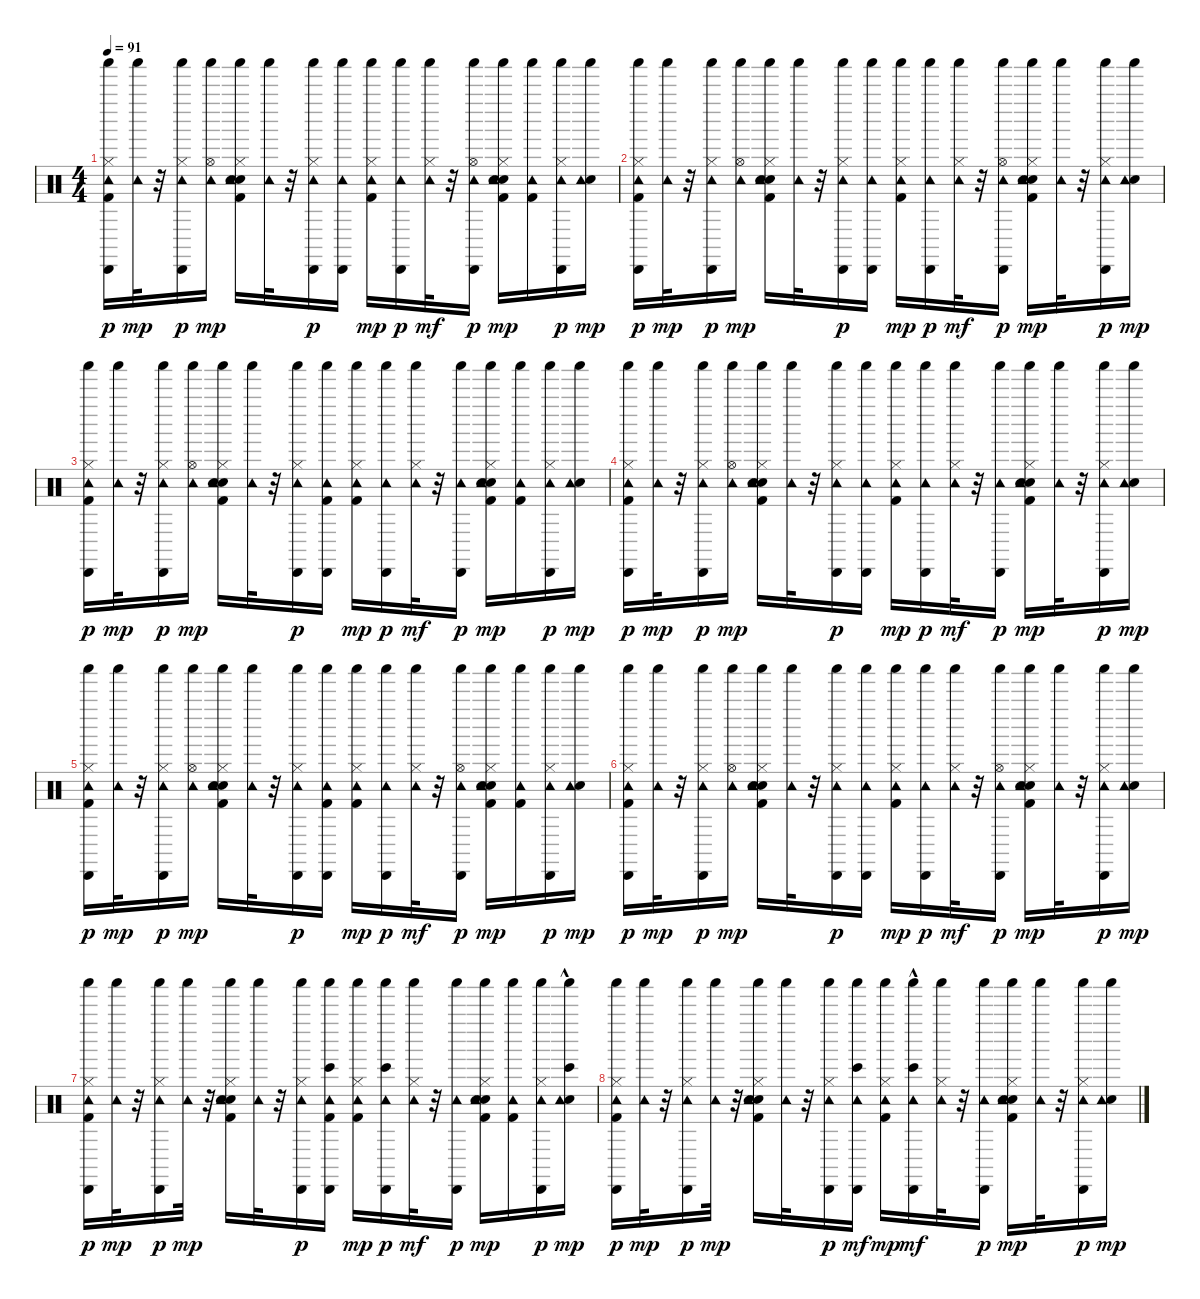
\track "" {instrument percussion}
\staff {score}
\articulation defaults
\ts (4 4)
\tempo 91
\clef neutral
\ks c
("Kick (hit) 2" "Hi-Hat (closed)" "Tambourine (hit)" "Shaker (hit)" "Cabasa (hit)").16{dy p} ("Tambourine (hit)" "Shaker (hit)").32{dy mp} r.32 ("Hi-Hat (closed)" "Tambourine (hit)" "Shaker (hit)" "Cabasa (hit)").16{dy p} ("Hi-Hat (open)" "Tambourine (hit)" "Shaker (hit)").16{dy mp} ("Kick (hit) 2" "Electric Snare (hit)" "Hi-Hat (closed)" "Hand Clap (hit)" "Tambourine (hit)" "Shaker (hit)").16 ("Tambourine (hit)" "Shaker (hit)").32 r.32 ("Hi-Hat (closed)" "Tambourine (hit)" "Shaker (hit)" "Cabasa (hit)").16{dy p} ("Tambourine (hit)" "Shaker (hit)" "Cabasa (hit)").16 ("Kick (hit) 2" "Hi-Hat (closed)" "Tambourine (hit)" "Shaker (hit)").16{dy mp} ("Tambourine (hit)" "Shaker (hit)" "Cabasa (hit)").16{dy p} ("Hi-Hat (closed)" "Tambourine (hit)" "Shaker (hit)").32{dy mf} r.32 ("Hi-Hat (open)" "Tambourine (hit)" "Shaker (hit)" "Cabasa (hit)").16{dy p} ("Kick (hit) 2" "Electric Snare (hit)" "Hi-Hat (closed)" "Hand Clap (hit)" "Tambourine (hit)" "Shaker (hit)").16{dy mp} ("Kick (hit) 2" "Tambourine (hit)" "Shaker (hit)").16 ("Hi-Hat (closed)" "Tambourine (hit)" "Shaker (hit)" "Cabasa (hit)").16{dy p} ("Electric Snare (hit)" "Tambourine (hit)" "Shaker (hit)").16{dy mp} |
("Kick (hit) 2" "Hi-Hat (closed)" "Tambourine (hit)" "Shaker (hit)" "Cabasa (hit)").16{dy p} ("Tambourine (hit)" "Shaker (hit)").32{dy mp} r.32 ("Hi-Hat (closed)" "Tambourine (hit)" "Shaker (hit)" "Cabasa (hit)").16{dy p} ("Hi-Hat (open)" "Tambourine (hit)" "Shaker (hit)").16{dy mp} ("Kick (hit) 2" "Electric Snare (hit)" "Hi-Hat (closed)" "Hand Clap (hit)" "Tambourine (hit)" "Shaker (hit)").16 ("Tambourine (hit)" "Shaker (hit)").32 r.32 ("Hi-Hat (closed)" "Tambourine (hit)" "Shaker (hit)" "Cabasa (hit)").16{dy p} ("Tambourine (hit)" "Shaker (hit)" "Cabasa (hit)").16 ("Kick (hit) 2" "Hi-Hat (closed)" "Tambourine (hit)" "Shaker (hit)").16{dy mp} ("Tambourine (hit)" "Shaker (hit)" "Cabasa (hit)").16{dy p} ("Hi-Hat (closed)" "Tambourine (hit)" "Shaker (hit)").32{dy mf} r.32 ("Hi-Hat (open)" "Tambourine (hit)" "Shaker (hit)" "Cabasa (hit)").16{dy p} ("Kick (hit) 2" "Electric Snare (hit)" "Hi-Hat (closed)" "Hand Clap (hit)" "Tambourine (hit)" "Shaker (hit)").16{dy mp} ("Tambourine (hit)" "Shaker (hit)").32 r.32 ("Hi-Hat (closed)" "Tambourine (hit)" "Shaker (hit)" "Cabasa (hit)").16{dy p} ("Electric Snare (hit)" "Tambourine (hit)" "Shaker (hit)").16{dy mp} |
("Kick (hit) 2" "Hi-Hat (closed)" "Tambourine (hit)" "Shaker (hit)" "Cabasa (hit)").16{dy p} ("Tambourine (hit)" "Shaker (hit)").32{dy mp} r.32 ("Hi-Hat (closed)" "Tambourine (hit)" "Shaker (hit)" "Cabasa (hit)").16{dy p} ("Hi-Hat (open)" "Tambourine (hit)" "Shaker (hit)").16{dy mp} ("Kick (hit) 2" "Electric Snare (hit)" "Hi-Hat (closed)" "Hand Clap (hit)" "Tambourine (hit)" "Shaker (hit)").16 ("Tambourine (hit)" "Shaker (hit)").32 r.32 ("Hi-Hat (closed)" "Tambourine (hit)" "Shaker (hit)" "Cabasa (hit)").16{dy p} ("Kick (hit) 2" "Tambourine (hit)" "Shaker (hit)" "Cabasa (hit)").16 ("Kick (hit) 2" "Hi-Hat (closed)" "Tambourine (hit)" "Shaker (hit)").16{dy mp} ("Tambourine (hit)" "Shaker (hit)" "Cabasa (hit)").16{dy p} ("Hi-Hat (closed)" "Tambourine (hit)" "Shaker (hit)").32{dy mf} r.32 ("Tambourine (hit)" "Shaker (hit)" "Cabasa (hit)").16{dy p} ("Kick (hit) 2" "Electric Snare (hit)" "Hi-Hat (closed)" "Hand Clap (hit)" "Tambourine (hit)" "Shaker (hit)").16{dy mp} ("Kick (hit) 2" "Tambourine (hit)" "Shaker (hit)").16 ("Hi-Hat (closed)" "Tambourine (hit)" "Shaker (hit)" "Cabasa (hit)").16{dy p} ("Electric Snare (hit)" "Tambourine (hit)" "Shaker (hit)").16{dy mp} |
("Kick (hit) 2" "Hi-Hat (closed)" "Tambourine (hit)" "Shaker (hit)" "Cabasa (hit)").16{dy p} ("Tambourine (hit)" "Shaker (hit)").32{dy mp} r.32 ("Hi-Hat (closed)" "Tambourine (hit)" "Shaker (hit)" "Cabasa (hit)").16{dy p} ("Hi-Hat (open)" "Tambourine (hit)" "Shaker (hit)").16{dy mp} ("Kick (hit) 2" "Electric Snare (hit)" "Hi-Hat (closed)" "Hand Clap (hit)" "Tambourine (hit)" "Shaker (hit)").16 ("Tambourine (hit)" "Shaker (hit)").32 r.32 ("Hi-Hat (closed)" "Tambourine (hit)" "Shaker (hit)" "Cabasa (hit)").16{dy p} ("Tambourine (hit)" "Shaker (hit)" "Cabasa (hit)").16 ("Kick (hit) 2" "Hi-Hat (closed)" "Tambourine (hit)" "Shaker (hit)").16{dy mp} ("Tambourine (hit)" "Shaker (hit)" "Cabasa (hit)").16{dy p} ("Hi-Hat (closed)" "Tambourine (hit)" "Shaker (hit)").32{dy mf} r.32 ("Tambourine (hit)" "Shaker (hit)" "Cabasa (hit)").16{dy p} ("Kick (hit) 2" "Electric Snare (hit)" "Hi-Hat (closed)" "Hand Clap (hit)" "Tambourine (hit)" "Shaker (hit)").16{dy mp} ("Tambourine (hit)" "Shaker (hit)").32 r.32 ("Hi-Hat (closed)" "Tambourine (hit)" "Shaker (hit)" "Cabasa (hit)").16{dy p} ("Electric Snare (hit)" "Tambourine (hit)" "Shaker (hit)").16{dy mp} |
("Kick (hit) 2" "Hi-Hat (closed)" "Tambourine (hit)" "Shaker (hit)" "Cabasa (hit)").16{dy p} ("Tambourine (hit)" "Shaker (hit)").32{dy mp} r.32 ("Hi-Hat (closed)" "Tambourine (hit)" "Shaker (hit)" "Cabasa (hit)").16{dy p} ("Hi-Hat (open)" "Tambourine (hit)" "Shaker (hit)").16{dy mp} ("Kick (hit) 2" "Electric Snare (hit)" "Hi-Hat (closed)" "Hand Clap (hit)" "Tambourine (hit)" "Shaker (hit)").16 ("Tambourine (hit)" "Shaker (hit)").32 r.32 ("Hi-Hat (closed)" "Tambourine (hit)" "Shaker (hit)" "Cabasa (hit)").16{dy p} ("Kick (hit) 2" "Tambourine (hit)" "Shaker (hit)" "Cabasa (hit)").16 ("Kick (hit) 2" "Hi-Hat (closed)" "Tambourine (hit)" "Shaker (hit)").16{dy mp} ("Tambourine (hit)" "Shaker (hit)" "Cabasa (hit)").16{dy p} ("Hi-Hat (closed)" "Tambourine (hit)" "Shaker (hit)").32{dy mf} r.32 ("Hi-Hat (open)" "Tambourine (hit)" "Shaker (hit)" "Cabasa (hit)").16{dy p} ("Kick (hit) 2" "Electric Snare (hit)" "Hi-Hat (closed)" "Hand Clap (hit)" "Tambourine (hit)" "Shaker (hit)").16{dy mp} ("Kick (hit) 2" "Tambourine (hit)" "Shaker (hit)").16 ("Hi-Hat (closed)" "Tambourine (hit)" "Shaker (hit)" "Cabasa (hit)").16{dy p} ("Electric Snare (hit)" "Tambourine (hit)" "Shaker (hit)").16{dy mp} |
("Kick (hit) 2" "Hi-Hat (closed)" "Tambourine (hit)" "Shaker (hit)" "Cabasa (hit)").16{dy p} ("Tambourine (hit)" "Shaker (hit)").32{dy mp} r.32 ("Hi-Hat (closed)" "Tambourine (hit)" "Shaker (hit)" "Cabasa (hit)").16{dy p} ("Hi-Hat (open)" "Tambourine (hit)" "Shaker (hit)").16{dy mp} ("Kick (hit) 2" "Electric Snare (hit)" "Hi-Hat (closed)" "Hand Clap (hit)" "Tambourine (hit)" "Shaker (hit)").16 ("Tambourine (hit)" "Shaker (hit)").32 r.32 ("Hi-Hat (closed)" "Tambourine (hit)" "Shaker (hit)" "Cabasa (hit)").16{dy p} ("Tambourine (hit)" "Shaker (hit)" "Cabasa (hit)").16 ("Kick (hit) 2" "Hi-Hat (closed)" "Tambourine (hit)" "Shaker (hit)").16{dy mp} ("Tambourine (hit)" "Shaker (hit)" "Cabasa (hit)").16{dy p} ("Hi-Hat (closed)" "Tambourine (hit)" "Shaker (hit)").32{dy mf} r.32 ("Hi-Hat (open)" "Tambourine (hit)" "Shaker (hit)" "Cabasa (hit)").16{dy p} ("Kick (hit) 2" "Electric Snare (hit)" "Hi-Hat (closed)" "Hand Clap (hit)" "Tambourine (hit)" "Shaker (hit)").16{dy mp} ("Tambourine (hit)" "Shaker (hit)").32 r.32 ("Hi-Hat (closed)" "Tambourine (hit)" "Shaker (hit)" "Cabasa (hit)").16{dy p} ("Electric Snare (hit)" "Tambourine (hit)" "Shaker (hit)").16{dy mp} |
("Kick (hit) 2" "Hi-Hat (closed)" "Tambourine (hit)" "Shaker (hit)" "Cabasa (hit)").16{dy p} ("Tambourine (hit)" "Shaker (hit)").32{dy mp} r.32 ("Hi-Hat (closed)" "Tambourine (hit)" "Shaker (hit)" "Cabasa (hit)").16{dy p} ("Tambourine (hit)" "Shaker (hit)").32{dy mp} r.32 ("Kick (hit) 2" "Electric Snare (hit)" "Hi-Hat (closed)" "Hand Clap (hit)" "Tambourine (hit)" "Shaker (hit)").16 ("Tambourine (hit)" "Shaker (hit)").32 r.32 ("Hi-Hat (closed)" "Tambourine (hit)" "Shaker (hit)" "Cabasa (hit)").16{dy p} ("Kick (hit) 2" "Tambourine (hit)" "Shaker (hit)" "Cabasa (hit)" "Bongo High (hit)").16 ("Kick (hit) 2" "Hi-Hat (closed)" "Tambourine (hit)" "Shaker (hit)").16{dy mp} ("Tambourine (hit)" "Shaker (hit)" "Cabasa (hit)" "Bongo High (hit)").16{dy p} ("Hi-Hat (closed)" "Tambourine (hit)" "Shaker (hit)").32{dy mf} r.32 ("Tambourine (hit)" "Shaker (hit)" "Cabasa (hit)").16{dy p} ("Kick (hit) 2" "Electric Snare (hit)" "Hi-Hat (closed)" "Hand Clap (hit)" "Tambourine (hit)" "Shaker (hit)").16{dy mp} ("Kick (hit) 2" "Tambourine (hit)" "Shaker (hit)").16 ("Hi-Hat (closed)" "Tambourine (hit)" "Shaker (hit)" "Cabasa (hit)").16{dy p} ("Electric Snare (hit)" "Tambourine (hit)" "Shaker (hit)" "Bongo High (hit)"{hac}).16{dy mp} |
("Kick (hit) 2" "Hi-Hat (closed)" "Tambourine (hit)" "Shaker (hit)" "Cabasa (hit)").16{dy p} ("Tambourine (hit)" "Shaker (hit)").32{dy mp} r.32 ("Hi-Hat (closed)" "Tambourine (hit)" "Shaker (hit)" "Cabasa (hit)").16{dy p} ("Tambourine (hit)" "Shaker (hit)").32{dy mp} r.32 ("Kick (hit) 2" "Electric Snare (hit)" "Hi-Hat (closed)" "Hand Clap (hit)" "Tambourine (hit)" "Shaker (hit)").16 ("Tambourine (hit)" "Shaker (hit)").32 r.32 ("Hi-Hat (closed)" "Tambourine (hit)" "Shaker (hit)" "Cabasa (hit)").16{dy p} ("Tambourine (hit)" "Shaker (hit)" "Cabasa (hit)" "Bongo High (hit)").16{dy mf} ("Kick (hit) 2" "Hi-Hat (closed)" "Tambourine (hit)" "Shaker (hit)").16{dy mp} ("Tambourine (hit)" "Shaker (hit)" "Cabasa (hit)" "Bongo High (hit)"{hac}).16{dy mf} ("Hi-Hat (closed)" "Tambourine (hit)" "Shaker (hit)").32 r.32 ("Tambourine (hit)" "Shaker (hit)" "Cabasa (hit)").16{dy p} ("Kick (hit) 2" "Electric Snare (hit)" "Hi-Hat (closed)" "Hand Clap (hit)" "Tambourine (hit)" "Shaker (hit)").16{dy mp} ("Tambourine (hit)" "Shaker (hit)").32 r.32 ("Hi-Hat (closed)" "Tambourine (hit)" "Shaker (hit)" "Cabasa (hit)").16{dy p} ("Electric Snare (hit)" "Tambourine (hit)" "Shaker (hit)").16{dy mp}
